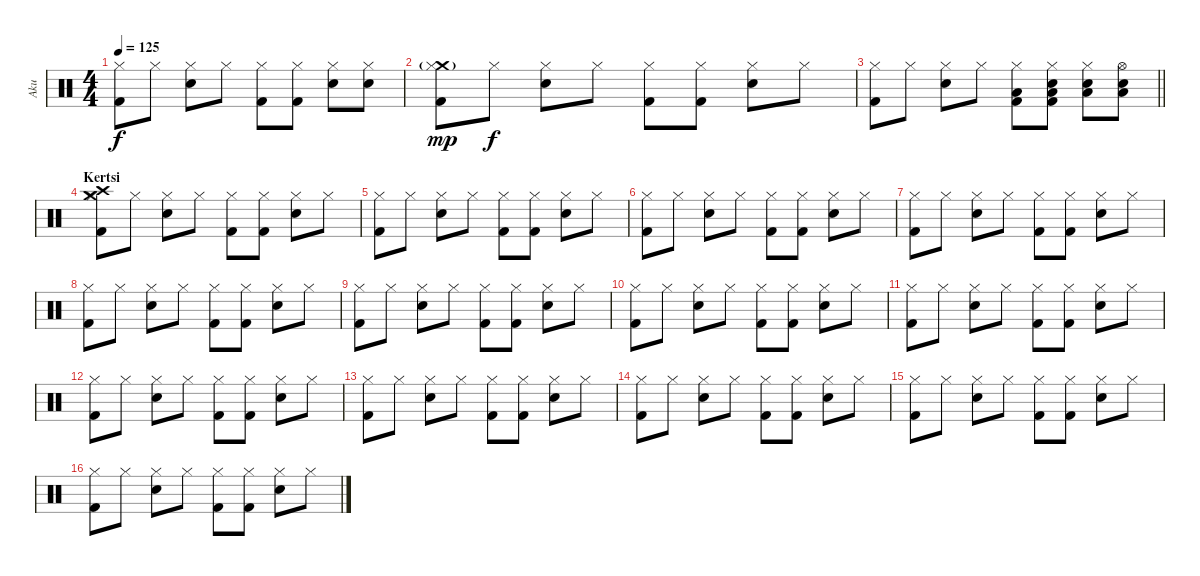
\track ("Aku" "Aku") {instrument percussion}
\staff {score}
\articulation defaults
\ts (4 4)
\tempo 125
\clef neutral
\ks c
("Hi-Hat (closed)" "Kick (hit) 2").8{dy f} "Hi-Hat (closed)".8 ("Hi-Hat (closed)" "Snare (hit) 2").8 "Hi-Hat (closed)".8 ("Hi-Hat (closed)" "Kick (hit) 2").8 ("Hi-Hat (closed)" "Kick (hit) 2").8 ("Hi-Hat (closed)" "Snare (hit) 2").8 ("Hi-Hat (closed)" "Snare (hit) 2").8 |
("Crash medium (hit)"{g} "Hi-Hat (closed)" "Kick (hit) 2").8{dy mp} "Hi-Hat (closed)".8{dy f} ("Hi-Hat (closed)" "Snare (hit) 2").8 "Hi-Hat (closed)".8 ("Hi-Hat (closed)" "Kick (hit) 2").8 ("Hi-Hat (closed)" "Kick (hit) 2").8 ("Hi-Hat (closed)" "Snare (hit) 2").8 "Hi-Hat (closed)".8 |
\barLineRight lightlight
("Hi-Hat (closed)" "Kick (hit) 2").8 "Hi-Hat (closed)".8 ("Hi-Hat (closed)" "Snare (hit) 2").8 "Hi-Hat (closed)".8 ("Low Tom (hit)" "Hi-Hat (closed)" "Kick (hit) 2").8 ("Low Tom (hit)" "Hi-Hat (closed)" "Kick (hit) 2" "Snare (hit) 2").8 ("Low Tom (hit)" "Hi-Hat (closed)" "Snare (hit) 2").8 ("Low Tom (hit)" "Hi-Hat (open)" "Snare (hit) 2").8 |
\section ("" "Kertsi")
("Crash high (hit)" "Crash medium (hit)" "Hi-Hat (closed)" "Kick (hit) 2").8 "Hi-Hat (closed)".8 ("Hi-Hat (closed)" "Snare (hit) 2").8 "Hi-Hat (closed)".8 ("Hi-Hat (closed)" "Kick (hit) 2").8 ("Hi-Hat (closed)" "Kick (hit) 2").8 ("Hi-Hat (closed)" "Snare (hit) 2").8 "Hi-Hat (closed)".8 |
("Hi-Hat (closed)" "Kick (hit) 2").8 "Hi-Hat (closed)".8 ("Hi-Hat (closed)" "Snare (hit) 2").8 "Hi-Hat (closed)".8 ("Hi-Hat (closed)" "Kick (hit) 2").8 ("Hi-Hat (closed)" "Kick (hit) 2").8 ("Hi-Hat (closed)" "Snare (hit) 2").8 "Hi-Hat (closed)".8 |
("Hi-Hat (closed)" "Kick (hit) 2").8 "Hi-Hat (closed)".8 ("Hi-Hat (closed)" "Snare (hit) 2").8 "Hi-Hat (closed)".8 ("Hi-Hat (closed)" "Kick (hit) 2").8 ("Hi-Hat (closed)" "Kick (hit) 2").8 ("Hi-Hat (closed)" "Snare (hit) 2").8 "Hi-Hat (closed)".8 |
("Hi-Hat (closed)" "Kick (hit) 2").8 "Hi-Hat (closed)".8 ("Hi-Hat (closed)" "Snare (hit) 2").8 "Hi-Hat (closed)".8 ("Hi-Hat (closed)" "Kick (hit) 2").8 ("Hi-Hat (closed)" "Kick (hit) 2").8 ("Hi-Hat (closed)" "Snare (hit) 2").8 "Hi-Hat (closed)".8 |
("Hi-Hat (closed)" "Kick (hit) 2").8 "Hi-Hat (closed)".8 ("Hi-Hat (closed)" "Snare (hit) 2").8 "Hi-Hat (closed)".8 ("Hi-Hat (closed)" "Kick (hit) 2").8 ("Hi-Hat (closed)" "Kick (hit) 2").8 ("Hi-Hat (closed)" "Snare (hit) 2").8 "Hi-Hat (closed)".8 |
("Hi-Hat (closed)" "Kick (hit) 2").8 "Hi-Hat (closed)".8 ("Hi-Hat (closed)" "Snare (hit) 2").8 "Hi-Hat (closed)".8 ("Hi-Hat (closed)" "Kick (hit) 2").8 ("Hi-Hat (closed)" "Kick (hit) 2").8 ("Hi-Hat (closed)" "Snare (hit) 2").8 "Hi-Hat (closed)".8 |
("Hi-Hat (closed)" "Kick (hit) 2").8 "Hi-Hat (closed)".8 ("Hi-Hat (closed)" "Snare (hit) 2").8 "Hi-Hat (closed)".8 ("Hi-Hat (closed)" "Kick (hit) 2").8 ("Hi-Hat (closed)" "Kick (hit) 2").8 ("Hi-Hat (closed)" "Snare (hit) 2").8 "Hi-Hat (closed)".8 |
("Hi-Hat (closed)" "Kick (hit) 2").8 "Hi-Hat (closed)".8 ("Hi-Hat (closed)" "Snare (hit) 2").8 "Hi-Hat (closed)".8 ("Hi-Hat (closed)" "Kick (hit) 2").8 ("Hi-Hat (closed)" "Kick (hit) 2").8 ("Hi-Hat (closed)" "Snare (hit) 2").8 "Hi-Hat (closed)".8 |
("Hi-Hat (closed)" "Kick (hit) 2").8 "Hi-Hat (closed)".8 ("Hi-Hat (closed)" "Snare (hit) 2").8 "Hi-Hat (closed)".8 ("Hi-Hat (closed)" "Kick (hit) 2").8 ("Hi-Hat (closed)" "Kick (hit) 2").8 ("Hi-Hat (closed)" "Snare (hit) 2").8 "Hi-Hat (closed)".8 |
("Hi-Hat (closed)" "Kick (hit) 2").8 "Hi-Hat (closed)".8 ("Hi-Hat (closed)" "Snare (hit) 2").8 "Hi-Hat (closed)".8 ("Hi-Hat (closed)" "Kick (hit) 2").8 ("Hi-Hat (closed)" "Kick (hit) 2").8 ("Hi-Hat (closed)" "Snare (hit) 2").8 "Hi-Hat (closed)".8 |
("Hi-Hat (closed)" "Kick (hit) 2").8 "Hi-Hat (closed)".8 ("Hi-Hat (closed)" "Snare (hit) 2").8 "Hi-Hat (closed)".8 ("Hi-Hat (closed)" "Kick (hit) 2").8 ("Hi-Hat (closed)" "Kick (hit) 2").8 ("Hi-Hat (closed)" "Snare (hit) 2").8 "Hi-Hat (closed)".8 |
("Hi-Hat (closed)" "Kick (hit) 2").8 "Hi-Hat (closed)".8 ("Hi-Hat (closed)" "Snare (hit) 2").8 "Hi-Hat (closed)".8 ("Hi-Hat (closed)" "Kick (hit) 2").8 ("Hi-Hat (closed)" "Kick (hit) 2").8 ("Hi-Hat (closed)" "Snare (hit) 2").8 "Hi-Hat (closed)".8 |
("Hi-Hat (closed)" "Kick (hit) 2").8 "Hi-Hat (closed)".8 ("Hi-Hat (closed)" "Snare (hit) 2").8 "Hi-Hat (closed)".8 ("Hi-Hat (closed)" "Kick (hit) 2").8 ("Hi-Hat (closed)" "Kick (hit) 2").8 ("Hi-Hat (closed)" "Snare (hit) 2").8 "Hi-Hat (closed)".8
